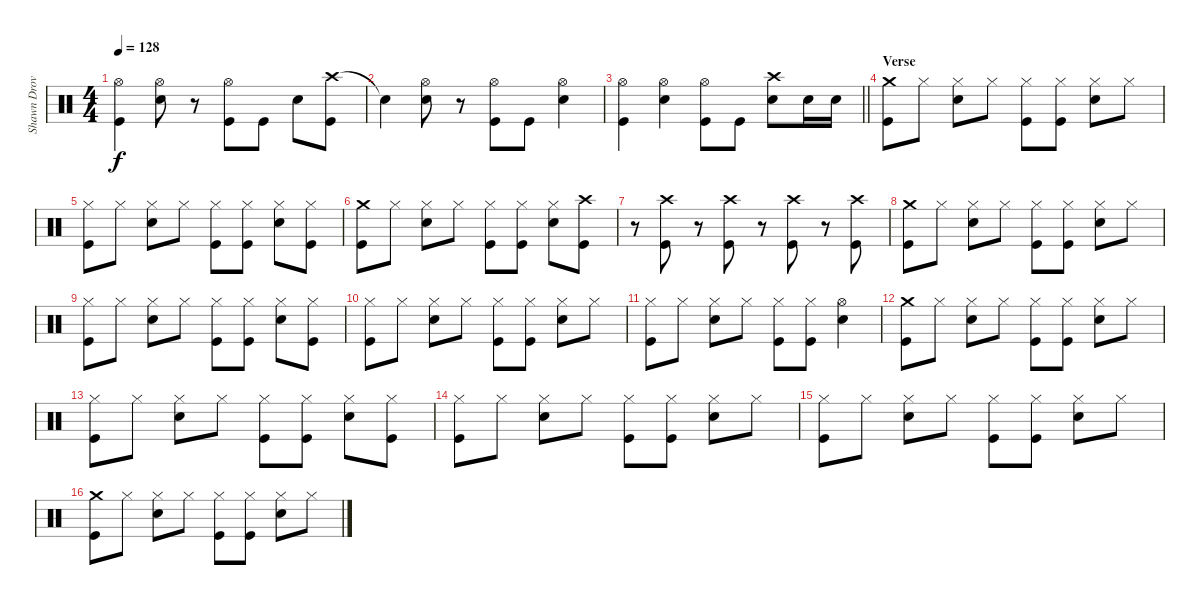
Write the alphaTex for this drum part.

\track ("Shawn Drover" "Shawn Drov") {instrument percussion}
\staff {score}
\articulation defaults
\ts (4 4)
\tempo 128
\clef neutral
\ks c
("Hi-Hat (open)" "Kick (hit)").4{dy f} ("Hi-Hat (open)" "Snare (hit) 2").8 r.8 ("Hi-Hat (open)" "Kick (hit)").8 "Kick (hit)".8 "Snare (hit) 2".8 ("Crash high (hit)" "Kick (hit)").8 |
"Snare (hit)"{t}.4 ("Hi-Hat (open)" "Snare (hit) 2").8 r.8 ("Hi-Hat (open)" "Kick (hit)").8 "Kick (hit)".8 ("Hi-Hat (open)" "Snare (hit) 2").4 |
\barLineRight lightlight
("Hi-Hat (open)" "Kick (hit)").4 ("Hi-Hat (open)" "Snare (hit) 2").4 ("Hi-Hat (open)" "Kick (hit)").8 "Kick (hit)".8 ("Crash high (hit)" "Snare (hit) 2").8 "Snare (hit) 2".16 "Snare (hit) 2".16 |
\section ("" "Verse")
("Crash medium (hit)" "Kick (hit)").8 "Hi-Hat (closed)".8 ("Hi-Hat (closed)" "Snare (hit) 2").8 "Hi-Hat (closed)".8 ("Hi-Hat (closed)" "Kick (hit)").8 ("Hi-Hat (closed)" "Kick (hit)").8 ("Hi-Hat (closed)" "Snare (hit) 2").8 "Hi-Hat (closed)".8 |
("Hi-Hat (closed)" "Kick (hit)").8 "Hi-Hat (closed)".8 ("Hi-Hat (closed)" "Snare (hit) 2").8 "Hi-Hat (closed)".8 ("Hi-Hat (closed)" "Kick (hit)").8 ("Hi-Hat (closed)" "Kick (hit)").8 ("Hi-Hat (closed)" "Snare (hit) 2").8 ("Hi-Hat (closed)" "Kick (hit)").8 |
("Crash medium (hit)" "Kick (hit)").8 "Hi-Hat (closed)".8 ("Hi-Hat (closed)" "Snare (hit) 2").8 "Hi-Hat (closed)".8 ("Hi-Hat (closed)" "Kick (hit)").8 ("Hi-Hat (closed)" "Kick (hit)").8 ("Hi-Hat (closed)" "Snare (hit) 2").8 ("Crash high (hit)" "Kick (hit)").8 |
r.8 ("Crash high (hit)" "Kick (hit)").8 r.8 ("Crash high (hit)" "Kick (hit)").8 r.8 ("Crash high (hit)" "Kick (hit)").8 r.8 ("Crash high (hit)" "Kick (hit)").8 |
("Crash medium (hit)" "Kick (hit)").8 "Hi-Hat (closed)".8 ("Hi-Hat (closed)" "Snare (hit) 2").8 "Hi-Hat (closed)".8 ("Hi-Hat (closed)" "Kick (hit)").8 ("Hi-Hat (closed)" "Kick (hit)").8 ("Hi-Hat (closed)" "Snare (hit) 2").8 "Hi-Hat (closed)".8 |
("Hi-Hat (closed)" "Kick (hit)").8 "Hi-Hat (closed)".8 ("Hi-Hat (closed)" "Snare (hit) 2").8 "Hi-Hat (closed)".8 ("Hi-Hat (closed)" "Kick (hit)").8 ("Hi-Hat (closed)" "Kick (hit)").8 ("Hi-Hat (closed)" "Snare (hit) 2").8 ("Hi-Hat (closed)" "Kick (hit)").8 |
("Hi-Hat (closed)" "Kick (hit)").8 "Hi-Hat (closed)".8 ("Hi-Hat (closed)" "Snare (hit) 2").8 "Hi-Hat (closed)".8 ("Hi-Hat (closed)" "Kick (hit)").8 ("Hi-Hat (closed)" "Kick (hit)").8 ("Hi-Hat (closed)" "Snare (hit) 2").8 "Hi-Hat (closed)".8 |
("Hi-Hat (closed)" "Kick (hit)").8 "Hi-Hat (closed)".8 ("Hi-Hat (closed)" "Snare (hit) 2").8 "Hi-Hat (closed)".8 ("Hi-Hat (closed)" "Kick (hit)").8 ("Hi-Hat (closed)" "Kick (hit)").8 ("Hi-Hat (open)" "Snare (hit) 2").4 |
("Crash medium (hit)" "Kick (hit)").8 "Hi-Hat (closed)".8 ("Hi-Hat (closed)" "Snare (hit) 2").8 "Hi-Hat (closed)".8 ("Hi-Hat (closed)" "Kick (hit)").8 ("Hi-Hat (closed)" "Kick (hit)").8 ("Hi-Hat (closed)" "Snare (hit) 2").8 "Hi-Hat (closed)".8 |
("Hi-Hat (closed)" "Kick (hit)").8 "Hi-Hat (closed)".8 ("Hi-Hat (closed)" "Snare (hit) 2").8 "Hi-Hat (closed)".8 ("Hi-Hat (closed)" "Kick (hit)").8 ("Hi-Hat (closed)" "Kick (hit)").8 ("Hi-Hat (closed)" "Snare (hit) 2").8 ("Hi-Hat (closed)" "Kick (hit)").8 |
("Hi-Hat (closed)" "Kick (hit)").8 "Hi-Hat (closed)".8 ("Hi-Hat (closed)" "Snare (hit) 2").8 "Hi-Hat (closed)".8 ("Hi-Hat (closed)" "Kick (hit)").8 ("Hi-Hat (closed)" "Kick (hit)").8 ("Hi-Hat (closed)" "Snare (hit) 2").8 "Hi-Hat (closed)".8 |
("Hi-Hat (closed)" "Kick (hit)").8 "Hi-Hat (closed)".8 ("Hi-Hat (closed)" "Snare (hit) 2").8 "Hi-Hat (closed)".8 ("Hi-Hat (closed)" "Kick (hit)").8 ("Hi-Hat (closed)" "Kick (hit)").8 ("Hi-Hat (closed)" "Snare (hit) 2").8 "Hi-Hat (closed)".8 |
("Crash medium (hit)" "Kick (hit)").8 "Hi-Hat (closed)".8 ("Hi-Hat (closed)" "Snare (hit) 2").8 "Hi-Hat (closed)".8 ("Hi-Hat (closed)" "Kick (hit)").8 ("Hi-Hat (closed)" "Kick (hit)").8 ("Hi-Hat (closed)" "Snare (hit) 2").8 "Hi-Hat (closed)".8
